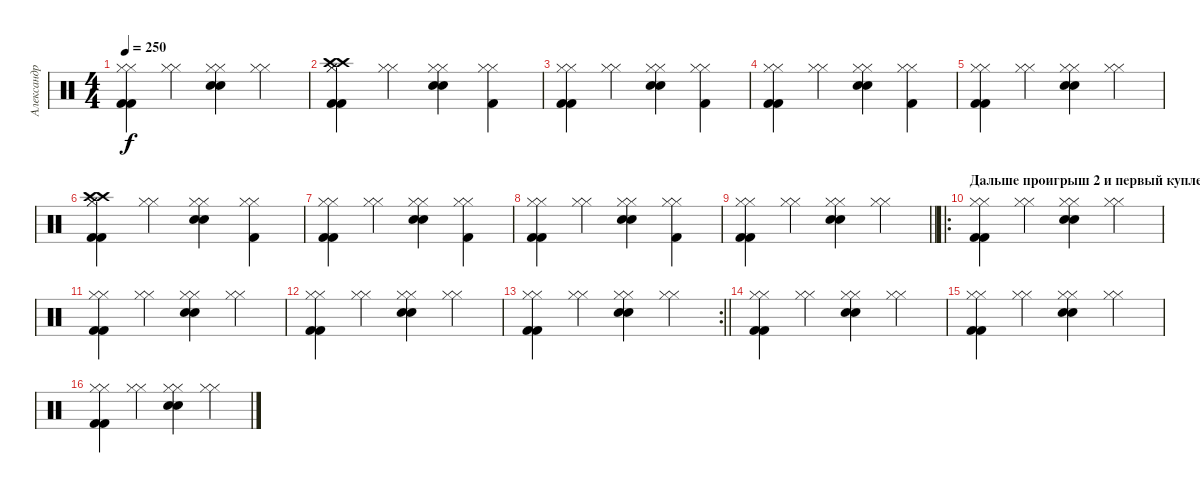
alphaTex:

\track ("Александр Андрюшкин" "Александр ") {instrument percussion}
\staff {score}
\articulation defaults
\ts (4 4)
\tempo 250
\clef neutral
\ks c
("Hi-Hat (closed)" "Hi-Hat (closed)" "Kick (hit) 2" "Kick (hit) 2").4{dy f} ("Hi-Hat (closed)" "Hi-Hat (closed)").4 ("Hi-Hat (closed)" "Hi-Hat (closed)" "Snare (hit) 2" "Snare (hit) 2").4 ("Hi-Hat (closed)" "Hi-Hat (closed)").4 |
("Hi-Hat (closed)" "Hi-Hat (closed)" "Crash high (hit)" "Crash high (hit)" "Kick (hit) 2" "Kick (hit) 2").4 ("Hi-Hat (closed)" "Hi-Hat (closed)").4 ("Hi-Hat (closed)" "Hi-Hat (closed)" "Snare (hit) 2" "Snare (hit) 2").4 ("Hi-Hat (closed)" "Hi-Hat (closed)" "Kick (hit) 2").4 |
("Hi-Hat (closed)" "Hi-Hat (closed)" "Kick (hit) 2" "Kick (hit) 2").4 ("Hi-Hat (closed)" "Hi-Hat (closed)").4 ("Hi-Hat (closed)" "Hi-Hat (closed)" "Snare (hit) 2" "Snare (hit) 2").4 ("Hi-Hat (closed)" "Hi-Hat (closed)" "Kick (hit) 2").4 |
("Hi-Hat (closed)" "Hi-Hat (closed)" "Kick (hit) 2" "Kick (hit) 2").4 ("Hi-Hat (closed)" "Hi-Hat (closed)").4 ("Hi-Hat (closed)" "Hi-Hat (closed)" "Snare (hit) 2" "Snare (hit) 2").4 ("Hi-Hat (closed)" "Hi-Hat (closed)" "Kick (hit) 2").4 |
("Hi-Hat (closed)" "Hi-Hat (closed)" "Kick (hit) 2" "Kick (hit) 2").4 ("Hi-Hat (closed)" "Hi-Hat (closed)").4 ("Hi-Hat (closed)" "Hi-Hat (closed)" "Snare (hit) 2" "Snare (hit) 2").4 ("Hi-Hat (closed)" "Hi-Hat (closed)").4 |
("Hi-Hat (closed)" "Hi-Hat (closed)" "Crash high (hit)" "Crash high (hit)" "Kick (hit) 2" "Kick (hit) 2").4 ("Hi-Hat (closed)" "Hi-Hat (closed)").4 ("Hi-Hat (closed)" "Hi-Hat (closed)" "Snare (hit) 2" "Snare (hit) 2").4 ("Hi-Hat (closed)" "Hi-Hat (closed)" "Kick (hit) 2").4 |
("Hi-Hat (closed)" "Hi-Hat (closed)" "Kick (hit) 2" "Kick (hit) 2").4 ("Hi-Hat (closed)" "Hi-Hat (closed)").4 ("Hi-Hat (closed)" "Hi-Hat (closed)" "Snare (hit) 2" "Snare (hit) 2").4 ("Hi-Hat (closed)" "Hi-Hat (closed)" "Kick (hit) 2").4 |
("Hi-Hat (closed)" "Hi-Hat (closed)" "Kick (hit) 2" "Kick (hit) 2").4 ("Hi-Hat (closed)" "Hi-Hat (closed)").4 ("Hi-Hat (closed)" "Hi-Hat (closed)" "Snare (hit) 2" "Snare (hit) 2").4 ("Hi-Hat (closed)" "Hi-Hat (closed)" "Kick (hit) 2").4 |
\barLineRight lightlight
("Hi-Hat (closed)" "Hi-Hat (closed)" "Kick (hit) 2" "Kick (hit) 2").4 ("Hi-Hat (closed)" "Hi-Hat (closed)").4 ("Hi-Hat (closed)" "Hi-Hat (closed)" "Snare (hit) 2" "Snare (hit) 2").4 ("Hi-Hat (closed)" "Hi-Hat (closed)").4 |
\ro
\section ("" "Дальше проигрыш 2 и первый куплет")
("Hi-Hat (closed)" "Hi-Hat (closed)" "Kick (hit) 2" "Kick (hit) 2").4 ("Hi-Hat (closed)" "Hi-Hat (closed)").4 ("Hi-Hat (closed)" "Hi-Hat (closed)" "Snare (hit) 2" "Snare (hit) 2").4 ("Hi-Hat (closed)" "Hi-Hat (closed)").4 |
("Hi-Hat (closed)" "Hi-Hat (closed)" "Kick (hit) 2" "Kick (hit) 2").4 ("Hi-Hat (closed)" "Hi-Hat (closed)").4 ("Hi-Hat (closed)" "Hi-Hat (closed)" "Snare (hit) 2" "Snare (hit) 2").4 ("Hi-Hat (closed)" "Hi-Hat (closed)").4 |
("Hi-Hat (closed)" "Hi-Hat (closed)" "Kick (hit) 2" "Kick (hit) 2").4 ("Hi-Hat (closed)" "Hi-Hat (closed)").4 ("Hi-Hat (closed)" "Hi-Hat (closed)" "Snare (hit) 2" "Snare (hit) 2").4 ("Hi-Hat (closed)" "Hi-Hat (closed)").4 |
\rc 2
\barLineRight lightlight
("Hi-Hat (closed)" "Hi-Hat (closed)" "Kick (hit) 2" "Kick (hit) 2").4 ("Hi-Hat (closed)" "Hi-Hat (closed)").4 ("Hi-Hat (closed)" "Hi-Hat (closed)" "Snare (hit) 2" "Snare (hit) 2").4 ("Hi-Hat (closed)" "Hi-Hat (closed)").4 |
("Hi-Hat (closed)" "Hi-Hat (closed)" "Kick (hit) 2" "Kick (hit) 2").4 ("Hi-Hat (closed)" "Hi-Hat (closed)").4 ("Hi-Hat (closed)" "Hi-Hat (closed)" "Snare (hit) 2" "Snare (hit) 2").4 ("Hi-Hat (closed)" "Hi-Hat (closed)").4 |
("Hi-Hat (closed)" "Hi-Hat (closed)" "Kick (hit) 2" "Kick (hit) 2").4 ("Hi-Hat (closed)" "Hi-Hat (closed)").4 ("Hi-Hat (closed)" "Hi-Hat (closed)" "Snare (hit) 2" "Snare (hit) 2").4 ("Hi-Hat (closed)" "Hi-Hat (closed)").4 |
("Hi-Hat (closed)" "Hi-Hat (closed)" "Kick (hit) 2" "Kick (hit) 2").4 ("Hi-Hat (closed)" "Hi-Hat (closed)").4 ("Hi-Hat (closed)" "Hi-Hat (closed)" "Snare (hit) 2" "Snare (hit) 2").4 ("Hi-Hat (closed)" "Hi-Hat (closed)").4
